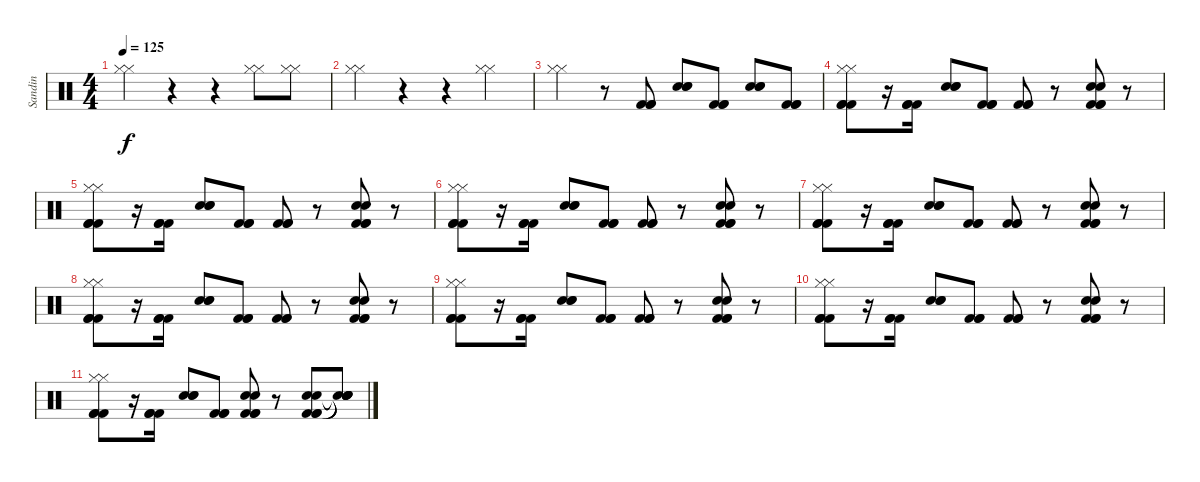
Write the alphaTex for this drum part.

\track ("Sandin" "Sandin") {instrument percussion}
\staff {score}
\articulation defaults
\ts (4 4)
\tempo 125
\clef neutral
\ks c
("Hi-Hat (closed)" "Hi-Hat (closed)").4{dy f} r.4 r.4 ("Hi-Hat (closed)" "Hi-Hat (closed)").8 ("Hi-Hat (closed)" "Hi-Hat (closed)").8 |
("Hi-Hat (closed)" "Hi-Hat (closed)").4 r.4 r.4 ("Hi-Hat (closed)" "Hi-Hat (closed)").4 |
("Hi-Hat (closed)" "Hi-Hat (closed)").4 r.8 ("Kick (hit) 2" "Kick (hit) 2" "Kick (hit) 2").8 ("Snare (hit) 2" "Snare (hit) 2" "Snare (hit) 2").8 ("Kick (hit) 2" "Kick (hit) 2" "Kick (hit) 2").8 ("Snare (hit) 2" "Snare (hit) 2" "Snare (hit) 2").8 ("Kick (hit) 2" "Kick (hit) 2" "Kick (hit) 2").8 |
("Hi-Hat (closed)" "Kick (hit) 2" "Kick (hit) 2" "Kick (hit) 2" "Hi-Hat (closed)").8 r.16 ("Kick (hit) 2" "Kick (hit) 2" "Kick (hit) 2").16 ("Snare (hit) 2" "Snare (hit) 2" "Snare (hit) 2").8 ("Kick (hit) 2" "Kick (hit) 2" "Kick (hit) 2").8 ("Kick (hit) 2" "Kick (hit) 2" "Kick (hit) 2").8 r.8 ("Snare (hit) 2" "Kick (hit) 2" "Kick (hit) 2" "Kick (hit) 2" "Snare (hit) 2").8 r.8 |
("Hi-Hat (closed)" "Kick (hit) 2" "Kick (hit) 2" "Kick (hit) 2" "Hi-Hat (closed)").8 r.16 ("Kick (hit) 2" "Kick (hit) 2" "Kick (hit) 2").16 ("Snare (hit) 2" "Snare (hit) 2" "Snare (hit) 2").8 ("Kick (hit) 2" "Kick (hit) 2" "Kick (hit) 2").8 ("Kick (hit) 2" "Kick (hit) 2" "Kick (hit) 2").8 r.8 ("Snare (hit) 2" "Kick (hit) 2" "Kick (hit) 2" "Kick (hit) 2" "Snare (hit) 2").8 r.8 |
("Hi-Hat (closed)" "Kick (hit) 2" "Kick (hit) 2" "Kick (hit) 2" "Hi-Hat (closed)").8 r.16 ("Kick (hit) 2" "Kick (hit) 2" "Kick (hit) 2").16 ("Snare (hit) 2" "Snare (hit) 2" "Snare (hit) 2").8 ("Kick (hit) 2" "Kick (hit) 2" "Kick (hit) 2").8 ("Kick (hit) 2" "Kick (hit) 2" "Kick (hit) 2").8 r.8 ("Snare (hit) 2" "Kick (hit) 2" "Kick (hit) 2" "Kick (hit) 2" "Snare (hit) 2").8 r.8 |
("Hi-Hat (closed)" "Kick (hit) 2" "Kick (hit) 2" "Kick (hit) 2" "Hi-Hat (closed)").8 r.16 ("Kick (hit) 2" "Kick (hit) 2" "Kick (hit) 2").16 ("Snare (hit) 2" "Snare (hit) 2" "Snare (hit) 2").8 ("Kick (hit) 2" "Kick (hit) 2" "Kick (hit) 2").8 ("Kick (hit) 2" "Kick (hit) 2" "Kick (hit) 2").8 r.8 ("Snare (hit) 2" "Kick (hit) 2" "Kick (hit) 2" "Kick (hit) 2" "Snare (hit) 2").8 r.8 |
("Hi-Hat (closed)" "Kick (hit) 2" "Kick (hit) 2" "Kick (hit) 2" "Hi-Hat (closed)").8 r.16 ("Kick (hit) 2" "Kick (hit) 2" "Kick (hit) 2").16 ("Snare (hit) 2" "Snare (hit) 2" "Snare (hit) 2").8 ("Kick (hit) 2" "Kick (hit) 2" "Kick (hit) 2").8 ("Kick (hit) 2" "Kick (hit) 2" "Kick (hit) 2").8 r.8 ("Snare (hit) 2" "Kick (hit) 2" "Kick (hit) 2" "Kick (hit) 2" "Snare (hit) 2").8 r.8 |
("Hi-Hat (closed)" "Kick (hit) 2" "Kick (hit) 2" "Kick (hit) 2" "Hi-Hat (closed)").8 r.16 ("Kick (hit) 2" "Kick (hit) 2" "Kick (hit) 2").16 ("Snare (hit) 2" "Snare (hit) 2" "Snare (hit) 2").8 ("Kick (hit) 2" "Kick (hit) 2" "Kick (hit) 2").8 ("Kick (hit) 2" "Kick (hit) 2" "Kick (hit) 2").8 r.8 ("Snare (hit) 2" "Kick (hit) 2" "Kick (hit) 2" "Kick (hit) 2" "Snare (hit) 2").8 r.8 |
("Hi-Hat (closed)" "Kick (hit) 2" "Kick (hit) 2" "Kick (hit) 2" "Hi-Hat (closed)").8 r.16 ("Kick (hit) 2" "Kick (hit) 2" "Kick (hit) 2").16 ("Snare (hit) 2" "Snare (hit) 2" "Snare (hit) 2").8 ("Kick (hit) 2" "Kick (hit) 2" "Kick (hit) 2").8 ("Kick (hit) 2" "Kick (hit) 2" "Kick (hit) 2").8 r.8 ("Snare (hit) 2" "Kick (hit) 2" "Kick (hit) 2" "Kick (hit) 2" "Snare (hit) 2").8 r.8 |
("Hi-Hat (closed)" "Kick (hit) 2" "Kick (hit) 2" "Kick (hit) 2" "Hi-Hat (closed)").8 r.16 ("Kick (hit) 2" "Kick (hit) 2" "Kick (hit) 2").16 ("Snare (hit) 2" "Snare (hit) 2" "Snare (hit) 2").8 ("Kick (hit) 2" "Kick (hit) 2" "Kick (hit) 2").8 ("Snare (hit) 2" "Kick (hit) 2" "Kick (hit) 2" "Kick (hit) 2" "Snare (hit) 2").8 r.8 ("Snare (hit) 2" "Kick (hit) 2" "Kick (hit) 2" "Kick (hit) 2" "Snare (hit) 2").8 ("Snare (hit)"{t} "Snare (hit)"{t} "Snare (hit)"{t} "Snare (hit)"{t} "Snare (hit)"{t}).8
